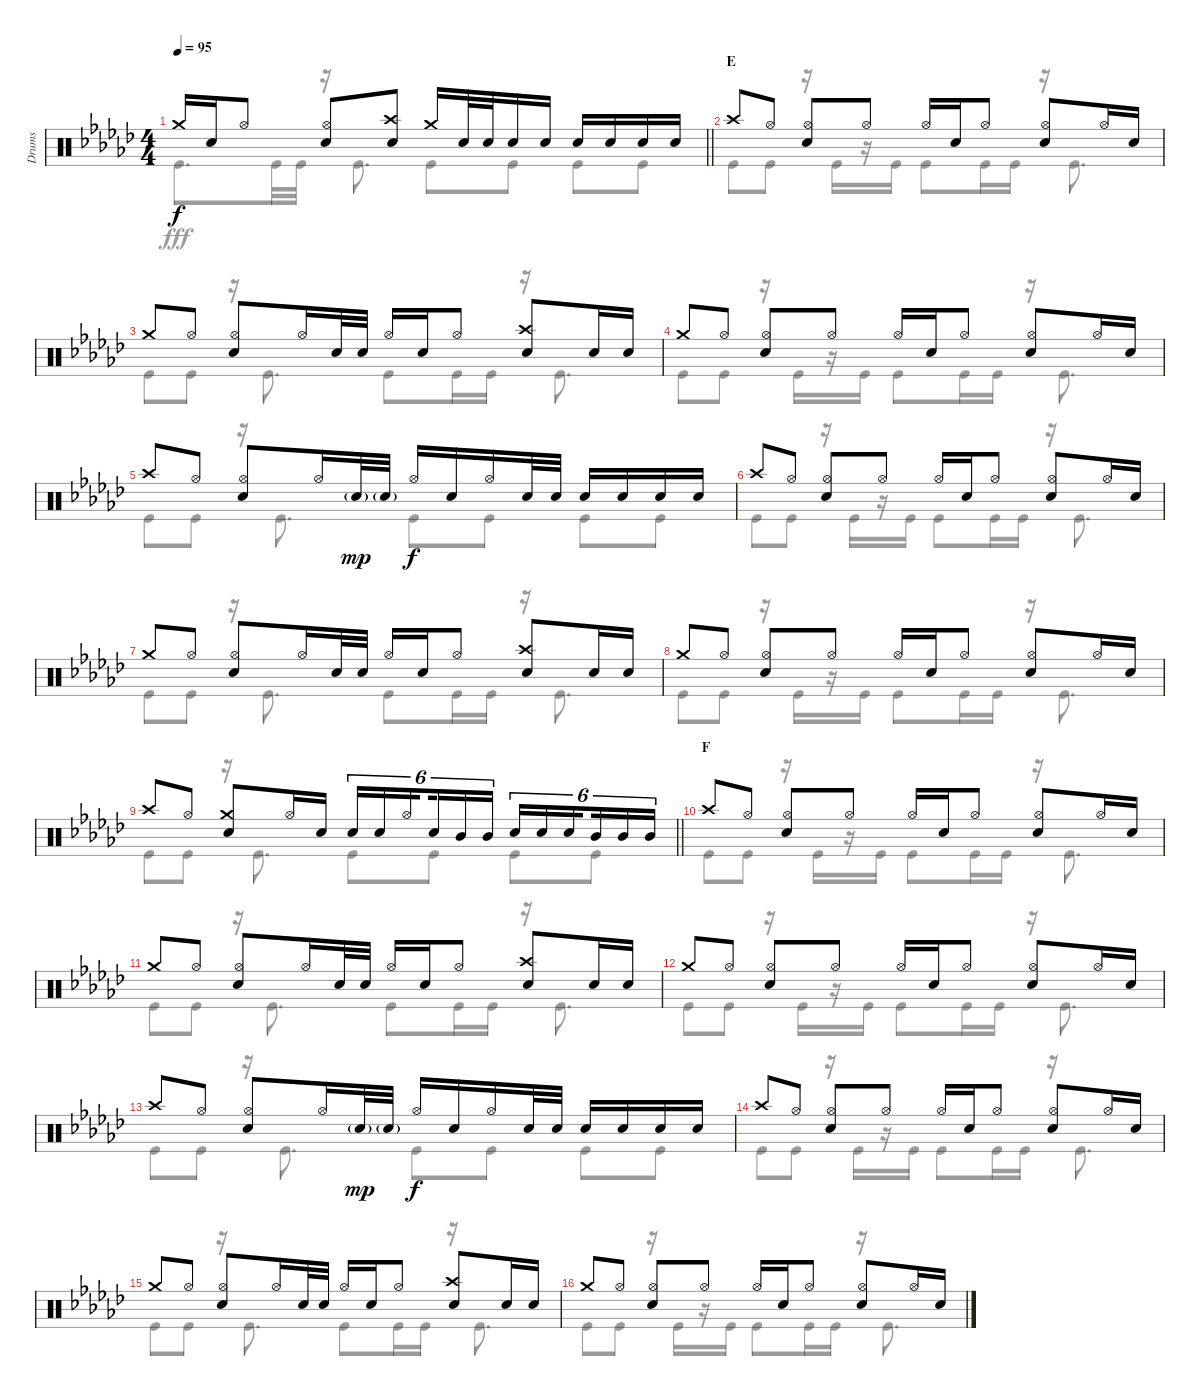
\track ("Drums" "Drums") {instrument percussion}
\staff {score}
\articulation defaults
\voice
\ts (4 4)
\tempo 95
\clef neutral
\barLineRight lightlight
\ks gb "Crash medium (hit)".16{dy f} "Snare (hit) 2".16 "Hi-Hat (open)".8
("Hi-Hat (open)" "Snare (hit) 2").8 ("Crash high (hit)" "Snare (hit) 2").8 "Crash medium (hit)".16 "Snare (hit) 2".32 "Snare (hit) 2".32 "Snare (hit) 2".16 "Snare (hit) 2".16 "Snare (hit) 2".16 "Snare (hit) 2".16 "Snare (hit) 2".16 "Snare (hit) 2".16 |
\section ("" "E")
"Crash high (hit)".8 "Hi-Hat (open)".8 ("Hi-Hat (open)" "Snare (hit) 2").8 "Hi-Hat (open)".8 "Hi-Hat (open)".16 "Snare (hit) 2".16 "Hi-Hat (open)".8 ("Hi-Hat (open)" "Snare (hit) 2").8 "Hi-Hat (open)".16 "Snare (hit) 2".16 |
"Crash medium (hit)".8 "Hi-Hat (open)".8 ("Hi-Hat (open)" "Snare (hit) 2").8 "Hi-Hat (open)".16 "Snare (hit) 2".32 "Snare (hit) 2".32 "Hi-Hat (open)".16 "Snare (hit) 2".16 "Hi-Hat (open)".8 ("Crash high (hit)" "Snare (hit) 2").8 "Snare (hit) 2".16 "Snare (hit) 2".16 |
"Crash medium (hit)".8 "Hi-Hat (open)".8 ("Hi-Hat (open)" "Snare (hit) 2").8 "Hi-Hat (open)".8 "Hi-Hat (open)".16 "Snare (hit) 2".16 "Hi-Hat (open)".8 ("Hi-Hat (open)" "Snare (hit) 2").8 "Hi-Hat (open)".16 "Snare (hit) 2".16 |
"Crash high (hit)".8 "Hi-Hat (open)".8 ("Hi-Hat (open)" "Snare (hit) 2").8 "Hi-Hat (open)".16 "Snare (hit) 2"{g}.32{dy mp} "Snare (hit) 2"{g}.32 "Hi-Hat (open)".16{dy f} "Snare (hit) 2".16 "Hi-Hat (open)".16 "Snare (hit) 2".32 "Snare (hit) 2".32 "Snare (hit) 2".16 "Snare (hit) 2".16 "Snare (hit) 2".16 "Snare (hit) 2".16 |
"Crash high (hit)".8 "Hi-Hat (open)".8 ("Hi-Hat (open)" "Snare (hit) 2").8 "Hi-Hat (open)".8 "Hi-Hat (open)".16 "Snare (hit) 2".16 "Hi-Hat (open)".8 ("Hi-Hat (open)" "Snare (hit) 2").8 "Hi-Hat (open)".16 "Snare (hit) 2".16 |
"Crash medium (hit)".8 "Hi-Hat (open)".8 ("Hi-Hat (open)" "Snare (hit) 2").8 "Hi-Hat (open)".16 "Snare (hit) 2".32 "Snare (hit) 2".32 "Hi-Hat (open)".16 "Snare (hit) 2".16 "Hi-Hat (open)".8 ("Crash high (hit)" "Snare (hit) 2").8 "Snare (hit) 2".16 "Snare (hit) 2".16 |
"Crash medium (hit)".8 "Hi-Hat (open)".8 ("Hi-Hat (open)" "Snare (hit) 2").8 "Hi-Hat (open)".8 "Hi-Hat (open)".16 "Snare (hit) 2".16 "Hi-Hat (open)".8 ("Hi-Hat (open)" "Snare (hit) 2").8 "Hi-Hat (open)".16 "Snare (hit) 2".16 |
\barLineRight lightlight "Crash high (hit)".8 "Hi-Hat (open)".8
("Crash medium (hit)" "Snare (hit) 2").8 "Hi-Hat (open)".16 "Snare (hit) 2".16 "Snare (hit) 2".16{tu (6 4)} "Snare (hit) 2".16{tu (6 4)} "Hi-Hat (open)".16{tu (6 4) beam splitsecondary} "Snare (hit) 2".16{tu (6 4)} "Mid Tom (hit)".16{tu (6 4)} "Mid Tom (hit)".16{tu (6 4)} "Snare (hit) 2".16{tu (6 4)} "Snare (hit) 2".16{tu (6 4)} "Snare (hit) 2".16{tu (6 4) beam splitsecondary} "Mid Tom (hit)".16{tu (6 4)} "Mid Tom (hit)".16{tu (6 4)} "Mid Tom (hit)".16{tu (6 4)} |
\section ("" "F")
"Crash high (hit)".8 "Hi-Hat (open)".8 ("Hi-Hat (open)" "Snare (hit) 2").8 "Hi-Hat (open)".8 "Hi-Hat (open)".16 "Snare (hit) 2".16 "Hi-Hat (open)".8 ("Hi-Hat (open)" "Snare (hit) 2").8 "Hi-Hat (open)".16 "Snare (hit) 2".16 |
"Crash medium (hit)".8 "Hi-Hat (open)".8 ("Hi-Hat (open)" "Snare (hit) 2").8 "Hi-Hat (open)".16 "Snare (hit) 2".32 "Snare (hit) 2".32 "Hi-Hat (open)".16 "Snare (hit) 2".16 "Hi-Hat (open)".8 ("Crash high (hit)" "Snare (hit) 2").8 "Snare (hit) 2".16 "Snare (hit) 2".16 |
"Crash medium (hit)".8 "Hi-Hat (open)".8 ("Hi-Hat (open)" "Snare (hit) 2").8 "Hi-Hat (open)".8 "Hi-Hat (open)".16 "Snare (hit) 2".16 "Hi-Hat (open)".8 ("Hi-Hat (open)" "Snare (hit) 2").8 "Hi-Hat (open)".16 "Snare (hit) 2".16 |
"Crash high (hit)".8 "Hi-Hat (open)".8 ("Hi-Hat (open)" "Snare (hit) 2").8 "Hi-Hat (open)".16 "Snare (hit) 2"{g}.32{dy mp} "Snare (hit) 2"{g}.32 "Hi-Hat (open)".16{dy f} "Snare (hit) 2".16 "Hi-Hat (open)".16 "Snare (hit) 2".32 "Snare (hit) 2".32 "Snare (hit) 2".16 "Snare (hit) 2".16 "Snare (hit) 2".16 "Snare (hit) 2".16 |
"Crash high (hit)".8 "Hi-Hat (open)".8 ("Hi-Hat (open)" "Snare (hit) 2").8 "Hi-Hat (open)".8 "Hi-Hat (open)".16 "Snare (hit) 2".16 "Hi-Hat (open)".8 ("Hi-Hat (open)" "Snare (hit) 2").8 "Hi-Hat (open)".16 "Snare (hit) 2".16 |
"Crash medium (hit)".8 "Hi-Hat (open)".8 ("Hi-Hat (open)" "Snare (hit) 2").8 "Hi-Hat (open)".16 "Snare (hit) 2".32 "Snare (hit) 2".32 "Hi-Hat (open)".16 "Snare (hit) 2".16 "Hi-Hat (open)".8 ("Crash high (hit)" "Snare (hit) 2").8 "Snare (hit) 2".16 "Snare (hit) 2".16 |
"Crash medium (hit)".8 "Hi-Hat (open)".8 ("Hi-Hat (open)" "Snare (hit) 2").8 "Hi-Hat (open)".8 "Hi-Hat (open)".16 "Snare (hit) 2".16 "Hi-Hat (open)".8 ("Hi-Hat (open)" "Snare (hit) 2").8 "Hi-Hat (open)".16 "Snare (hit) 2".16
\voice
\clef neutral
\ottava regular
\simile none
\barLineRight lightlight
\ks gb "Kick (hit)".8{d dy fff} "Kick (hit)".32 "Kick (hit)".32
r.16 "Kick (hit)".8{d} "Kick (hit)".8 "Kick (hit)".8 "Kick (hit)".8 "Kick (hit)".8 |
"Kick (hit)".8 "Kick (hit)".8 r.16 "Kick (hit)".16 r.16 "Kick (hit)".16 "Kick (hit)".8 "Kick (hit)".16 "Kick (hit)".16 r.16 "Kick (hit)".8{d} |
"Kick (hit)".8 "Kick (hit)".8 r.16 "Kick (hit)".8{d} "Kick (hit)".8 "Kick (hit)".16 "Kick (hit)".16 r.16 "Kick (hit)".8{d} |
"Kick (hit)".8 "Kick (hit)".8 r.16 "Kick (hit)".16 r.16 "Kick (hit)".16 "Kick (hit)".8 "Kick (hit)".16 "Kick (hit)".16 r.16 "Kick (hit)".8{d} |
"Kick (hit)".8 "Kick (hit)".8 r.16 "Kick (hit)".8{d} "Kick (hit)".8 "Kick (hit)".8 "Kick (hit)".8 "Kick (hit)".8 |
"Kick (hit)".8 "Kick (hit)".8 r.16 "Kick (hit)".16 r.16 "Kick (hit)".16 "Kick (hit)".8 "Kick (hit)".16 "Kick (hit)".16 r.16 "Kick (hit)".8{d} |
"Kick (hit)".8 "Kick (hit)".8 r.16 "Kick (hit)".8{d} "Kick (hit)".8 "Kick (hit)".16 "Kick (hit)".16 r.16 "Kick (hit)".8{d} |
"Kick (hit)".8 "Kick (hit)".8 r.16 "Kick (hit)".16 r.16 "Kick (hit)".16 "Kick (hit)".8 "Kick (hit)".16 "Kick (hit)".16 r.16 "Kick (hit)".8{d} |
\barLineRight lightlight "Kick (hit)".8 "Kick (hit)".8
r.16 "Kick (hit)".8{d} "Kick (hit)".8 "Kick (hit)".8 "Kick (hit)".8 "Kick (hit)".8 |
"Kick (hit)".8 "Kick (hit)".8 r.16 "Kick (hit)".16 r.16 "Kick (hit)".16 "Kick (hit)".8 "Kick (hit)".16 "Kick (hit)".16 r.16 "Kick (hit)".8{d} |
"Kick (hit)".8 "Kick (hit)".8 r.16 "Kick (hit)".8{d} "Kick (hit)".8 "Kick (hit)".16 "Kick (hit)".16 r.16 "Kick (hit)".8{d} |
"Kick (hit)".8 "Kick (hit)".8 r.16 "Kick (hit)".16 r.16 "Kick (hit)".16 "Kick (hit)".8 "Kick (hit)".16 "Kick (hit)".16 r.16 "Kick (hit)".8{d} |
"Kick (hit)".8 "Kick (hit)".8 r.16 "Kick (hit)".8{d} "Kick (hit)".8 "Kick (hit)".8 "Kick (hit)".8 "Kick (hit)".8 |
"Kick (hit)".8 "Kick (hit)".8 r.16 "Kick (hit)".16 r.16 "Kick (hit)".16 "Kick (hit)".8 "Kick (hit)".16 "Kick (hit)".16 r.16 "Kick (hit)".8{d} |
"Kick (hit)".8 "Kick (hit)".8 r.16 "Kick (hit)".8{d} "Kick (hit)".8 "Kick (hit)".16 "Kick (hit)".16 r.16 "Kick (hit)".8{d} |
"Kick (hit)".8 "Kick (hit)".8 r.16 "Kick (hit)".16 r.16 "Kick (hit)".16 "Kick (hit)".8 "Kick (hit)".16 "Kick (hit)".16 r.16 "Kick (hit)".8{d}
